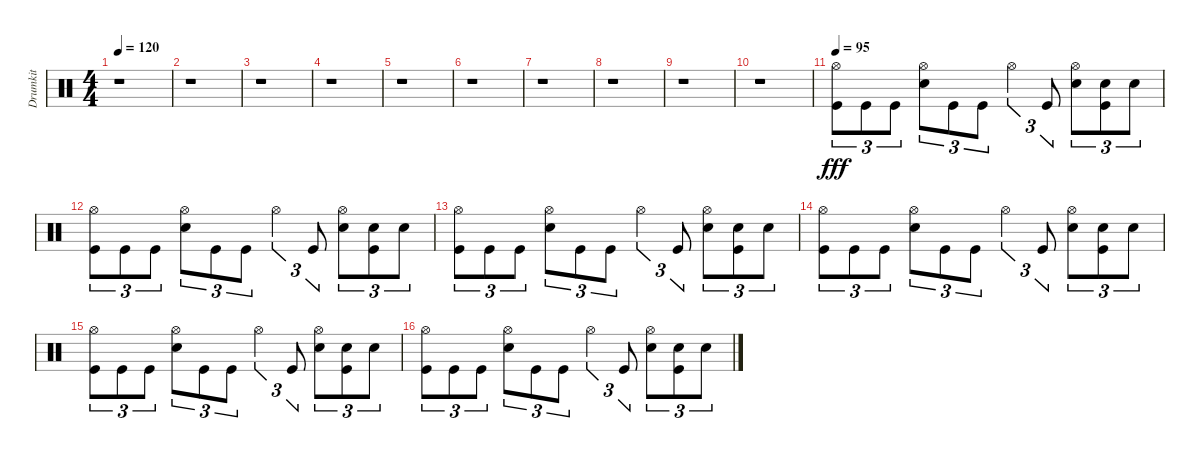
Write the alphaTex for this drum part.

\track ("Drumkit" "Drumkit") {instrument percussion}
\staff {score}
\articulation defaults
\ts (4 4)
\tempo 120
\clef neutral
\ks c
r.1{dy fff} |
r.1 |
r.1 |
r.1 |
r.1 |
r.1 |
r.1 |
r.1 |
r.1 |
r.1 |
\tempo 95
("Hi-Hat (open)" "Kick (hit)").8{tu (3 2)} "Kick (hit)".8{tu (3 2)} "Kick (hit)".8{tu (3 2)} ("Hi-Hat (open)" "Snare (hit) 2").8{tu (3 2)} "Kick (hit)".8{tu (3 2)} "Kick (hit)".8{tu (3 2)} "Hi-Hat (open)".4{tu (3 2)} "Kick (hit)".8{tu (3 2)} ("Hi-Hat (open)" "Snare (hit) 2").8{tu (3 2)} ("Snare (hit) 2" "Kick (hit)").8{tu (3 2)} "Snare (hit) 2".8{tu (3 2)} |
("Hi-Hat (open)" "Kick (hit)").8{tu (3 2)} "Kick (hit)".8{tu (3 2)} "Kick (hit)".8{tu (3 2)} ("Hi-Hat (open)" "Snare (hit) 2").8{tu (3 2)} "Kick (hit)".8{tu (3 2)} "Kick (hit)".8{tu (3 2)} "Hi-Hat (open)".4{tu (3 2)} "Kick (hit)".8{tu (3 2)} ("Hi-Hat (open)" "Snare (hit) 2").8{tu (3 2)} ("Snare (hit) 2" "Kick (hit)").8{tu (3 2)} "Snare (hit) 2".8{tu (3 2)} |
("Hi-Hat (open)" "Kick (hit)").8{tu (3 2)} "Kick (hit)".8{tu (3 2)} "Kick (hit)".8{tu (3 2)} ("Hi-Hat (open)" "Snare (hit) 2").8{tu (3 2)} "Kick (hit)".8{tu (3 2)} "Kick (hit)".8{tu (3 2)} "Hi-Hat (open)".4{tu (3 2)} "Kick (hit)".8{tu (3 2)} ("Hi-Hat (open)" "Snare (hit) 2").8{tu (3 2)} ("Snare (hit) 2" "Kick (hit)").8{tu (3 2)} "Snare (hit) 2".8{tu (3 2)} |
("Hi-Hat (open)" "Kick (hit)").8{tu (3 2)} "Kick (hit)".8{tu (3 2)} "Kick (hit)".8{tu (3 2)} ("Hi-Hat (open)" "Snare (hit) 2").8{tu (3 2)} "Kick (hit)".8{tu (3 2)} "Kick (hit)".8{tu (3 2)} "Hi-Hat (open)".4{tu (3 2)} "Kick (hit)".8{tu (3 2)} ("Hi-Hat (open)" "Snare (hit) 2").8{tu (3 2)} ("Snare (hit) 2" "Kick (hit)").8{tu (3 2)} "Snare (hit) 2".8{tu (3 2)} |
("Hi-Hat (open)" "Kick (hit)").8{tu (3 2)} "Kick (hit)".8{tu (3 2)} "Kick (hit)".8{tu (3 2)} ("Hi-Hat (open)" "Snare (hit) 2").8{tu (3 2)} "Kick (hit)".8{tu (3 2)} "Kick (hit)".8{tu (3 2)} "Hi-Hat (open)".4{tu (3 2)} "Kick (hit)".8{tu (3 2)} ("Hi-Hat (open)" "Snare (hit) 2").8{tu (3 2)} ("Snare (hit) 2" "Kick (hit)").8{tu (3 2)} "Snare (hit) 2".8{tu (3 2)} |
("Hi-Hat (open)" "Kick (hit)").8{tu (3 2)} "Kick (hit)".8{tu (3 2)} "Kick (hit)".8{tu (3 2)} ("Hi-Hat (open)" "Snare (hit) 2").8{tu (3 2)} "Kick (hit)".8{tu (3 2)} "Kick (hit)".8{tu (3 2)} "Hi-Hat (open)".4{tu (3 2)} "Kick (hit)".8{tu (3 2)} ("Hi-Hat (open)" "Snare (hit) 2").8{tu (3 2)} ("Snare (hit) 2" "Kick (hit)").8{tu (3 2)} "Snare (hit) 2".8{tu (3 2)}
